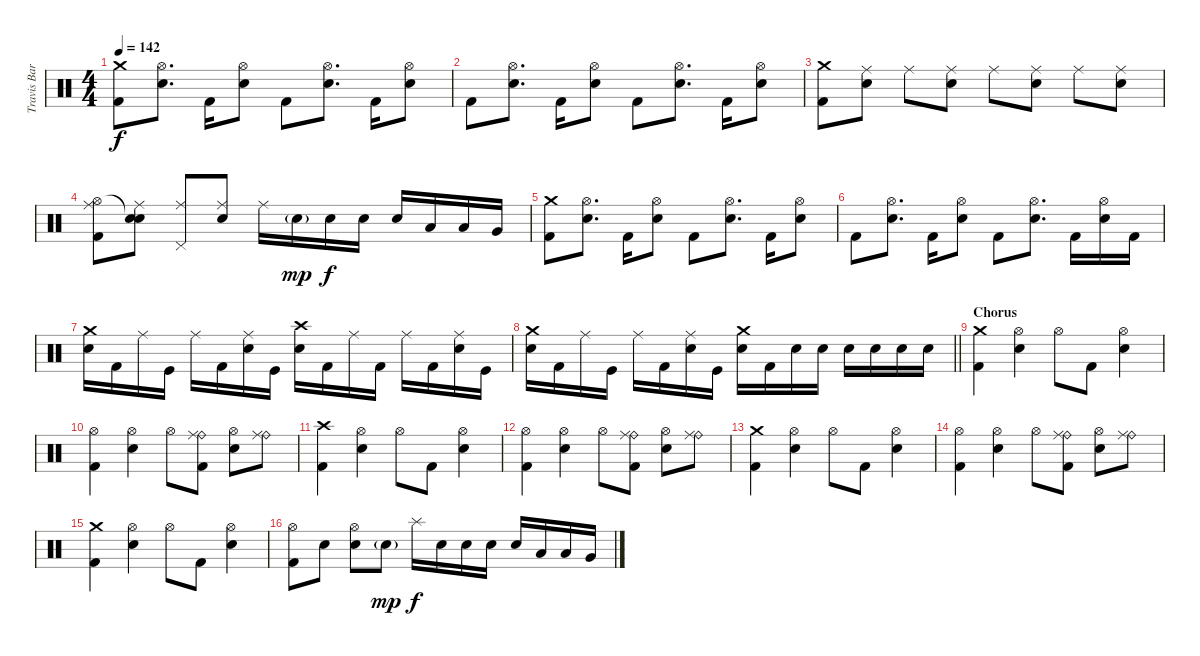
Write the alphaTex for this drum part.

\track ("Travis Barker - Drums" "Travis Bar") {instrument percussion}
\staff {score}
\articulation defaults
\ts (4 4)
\tempo 142
\clef neutral
\ks c
("Crash medium (hit)" "Kick (hit) 2").8{dy f} ("Hi-Hat (open)" "Electric Snare (hit)").8{d} "Kick (hit) 2".16 ("Hi-Hat (open)" "Electric Snare (hit)").8 "Kick (hit) 2".8 ("Hi-Hat (open)" "Electric Snare (hit)").8{d} "Kick (hit) 2".16 ("Hi-Hat (open)" "Electric Snare (hit)").8 |
"Kick (hit) 2".8 ("Hi-Hat (open)" "Electric Snare (hit)").8{d} "Kick (hit) 2".16 ("Hi-Hat (open)" "Electric Snare (hit)").8 "Kick (hit) 2".8 ("Hi-Hat (open)" "Electric Snare (hit)").8{d} "Kick (hit) 2".16 ("Hi-Hat (open)" "Electric Snare (hit)").8 |
("Crash medium (hit)" "Kick (hit) 2").8 ("Ride (middle)" "Electric Snare (hit)").8 "Ride (middle)".8 ("Ride (middle)" "Electric Snare (hit)").8 "Ride (middle)".8 ("Ride (middle)" "Electric Snare (hit)").8 "Ride (middle)".8 ("Ride (middle)" "Electric Snare (hit)").8 |
("Ride (middle)" "Hi-Hat (open)" "Kick (hit) 2").8 ("Ride (middle)" "Snare (hit)"{t} "Electric Snare (hit)").8 ("Ride (middle)" "Pedal Hi-Hat (hit)").8 ("Ride (middle)" "Electric Snare (hit)").8 "Ride (middle)".16 "Electric Snare (hit)"{g}.16{dy mp} "Electric Snare (hit)".16{dy f} "Electric Snare (hit)".16 "Electric Snare (hit)".16 "Low Tom (hit)".16 "Low Tom (hit)".16 "Very Low Tom (hit)".16 |
("Crash medium (hit)" "Kick (hit) 2").8 ("Hi-Hat (open)" "Electric Snare (hit)").8{d} "Kick (hit) 2".16 ("Hi-Hat (open)" "Electric Snare (hit)").8 "Kick (hit) 2".8 ("Hi-Hat (open)" "Electric Snare (hit)").8{d} "Kick (hit) 2".16 ("Hi-Hat (open)" "Electric Snare (hit)").8 |
"Kick (hit) 2".8 ("Hi-Hat (open)" "Electric Snare (hit)").8{d} "Kick (hit) 2".16 ("Hi-Hat (open)" "Electric Snare (hit)").8 "Kick (hit) 2".8 ("Hi-Hat (open)" "Electric Snare (hit)").8{d} "Kick (hit) 2".16 ("Hi-Hat (open)" "Electric Snare (hit)").16 "Kick (hit) 2".16 |
("Crash medium (hit)" "Electric Snare (hit)").16 "Kick (hit) 2".16 "Ride (middle)".16 "Kick (hit)".16 "Ride (middle)".16 "Kick (hit) 2".16 ("Ride (middle)" "Electric Snare (hit)").16 "Kick (hit)".16 ("Crash high (hit)" "Electric Snare (hit)").16 "Kick (hit) 2".16 "Ride (middle)".16 "Kick (hit) 2".16 "Ride (middle)".16 "Kick (hit) 2".16 ("Ride (middle)" "Electric Snare (hit)").16 "Kick (hit)".16 |
\barLineRight lightlight
("Crash medium (hit)" "Electric Snare (hit)").16 "Kick (hit) 2".16 "Ride (middle)".16 "Kick (hit)".16 "Ride (middle)".16 "Kick (hit) 2".16 ("Ride (middle)" "Electric Snare (hit)").16 "Kick (hit)".16 ("Crash medium (hit)" "Electric Snare (hit)").16 "Kick (hit) 2".16 "Electric Snare (hit)".16 "Electric Snare (hit)".16 "Electric Snare (hit)".16 "Electric Snare (hit)".16 "Electric Snare (hit)".16 "Electric Snare (hit)".16 |
\section ("" "Chorus")
("Crash medium (hit)" "Kick (hit) 2").4 ("Hi-Hat (open)" "Electric Snare (hit)").4 "Hi-Hat (open)".8 "Kick (hit) 2".8 ("Hi-Hat (open)" "Electric Snare (hit)").4 |
("Hi-Hat (open)" "Kick (hit) 2").4 ("Hi-Hat (open)" "Electric Snare (hit)").4 "Hi-Hat (open)".8 ("Ride (bell)" "Ride (middle)" "Kick (hit) 2").8 ("Hi-Hat (open)" "Electric Snare (hit)").8 ("Ride (bell)" "Ride (middle)").8 |
("Crash high (hit)" "Kick (hit) 2").4 ("Hi-Hat (open)" "Electric Snare (hit)").4 "Hi-Hat (open)".8 "Kick (hit) 2".8 ("Hi-Hat (open)" "Electric Snare (hit)").4 |
("Hi-Hat (open)" "Kick (hit) 2").4 ("Hi-Hat (open)" "Electric Snare (hit)").4 "Hi-Hat (open)".8 ("Ride (bell)" "Ride (middle)" "Kick (hit) 2").8 ("Hi-Hat (open)" "Electric Snare (hit)").8 ("Ride (bell)" "Ride (middle)").8 |
("Crash medium (hit)" "Kick (hit) 2").4 ("Hi-Hat (open)" "Electric Snare (hit)").4 "Hi-Hat (open)".8 "Kick (hit) 2".8 ("Hi-Hat (open)" "Electric Snare (hit)").4 |
("Hi-Hat (open)" "Kick (hit) 2").4 ("Hi-Hat (open)" "Electric Snare (hit)").4 "Hi-Hat (open)".8 ("Ride (bell)" "Ride (middle)" "Kick (hit) 2").8 ("Hi-Hat (open)" "Electric Snare (hit)").8 ("Ride (bell)" "Ride (middle)").8 |
("Crash medium (hit)" "Kick (hit) 2").4 ("Hi-Hat (open)" "Electric Snare (hit)").4 "Hi-Hat (open)".8 "Kick (hit) 2".8 ("Hi-Hat (open)" "Electric Snare (hit)").4 |
("Hi-Hat (open)" "Kick (hit) 2").8 "Electric Snare (hit)".8 ("Hi-Hat (open)" "Electric Snare (hit)").8 "Electric Snare (hit)"{g}.8{dy mp} "Splash (hit)".16{dy f} "Electric Snare (hit)".16 "Electric Snare (hit)".16 "Electric Snare (hit)".16 "Electric Snare (hit)".16 "Low Tom (hit)".16 "Low Tom (hit)".16 "Very Low Tom (hit)".16
